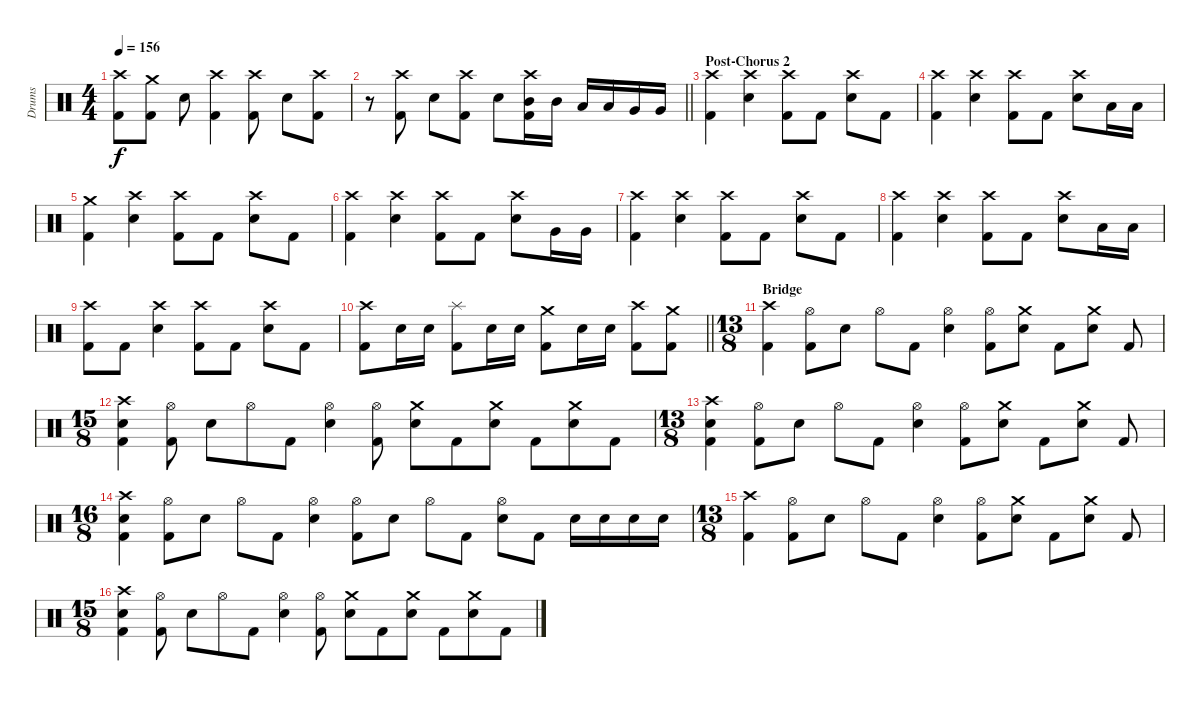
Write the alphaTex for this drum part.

\track ("Drums" "Drums") {instrument percussion}
\staff {score}
\articulation defaults
\ts (4 4)
\tempo 156
\clef neutral
\ks c
("Crash high (hit)" "Kick (hit) 2").8{dy f} ("Crash medium (hit)" "Kick (hit) 2").8 "Snare (hit) 2".8 ("Crash high (hit)" "Kick (hit) 2").4 ("Crash high (hit)" "Kick (hit) 2").8 "Snare (hit) 2".8 ("Crash high (hit)" "Kick (hit) 2").8 |
\barLineRight lightlight
r.8 ("Crash high (hit)" "Kick (hit) 2").8 "Snare (hit) 2".8 ("Crash high (hit)" "Kick (hit) 2").8 "Snare (hit) 2".8 ("Crash high (hit)" "Mid Tom (hit)" "Kick (hit) 2").16 "Mid Tom (hit)".16 "Low Tom (hit)".16 "Low Tom (hit)".16 "Very Low Tom (hit)".16 "Very Low Tom (hit)".16 |
\section ("" "Post-Chorus 2")
("Crash high (hit)" "Kick (hit) 2").4 ("Crash high (hit)" "Snare (hit) 2").4 ("Crash high (hit)" "Kick (hit) 2").8 "Kick (hit) 2".8 ("Crash high (hit)" "Snare (hit) 2").8 "Kick (hit) 2".8 |
("Crash high (hit)" "Kick (hit) 2").4 ("Crash high (hit)" "Snare (hit) 2").4 ("Crash high (hit)" "Kick (hit) 2").8 "Kick (hit) 2".8 ("Crash high (hit)" "Snare (hit) 2").8 "Low Tom (hit)".16 "Low Tom (hit)".16 |
("Crash medium (hit)" "Kick (hit) 2").4 ("Crash high (hit)" "Snare (hit) 2").4 ("Crash high (hit)" "Kick (hit) 2").8 "Kick (hit) 2".8 ("Crash high (hit)" "Snare (hit) 2").8 "Kick (hit) 2".8 |
("Crash high (hit)" "Kick (hit) 2").4 ("Crash high (hit)" "Snare (hit) 2").4 ("Crash high (hit)" "Kick (hit) 2").8 "Kick (hit) 2".8 ("Crash high (hit)" "Snare (hit) 2").8 "Very Low Tom (hit)".16 "Very Low Tom (hit)".16 |
("Crash high (hit)" "Kick (hit) 2").4 ("Crash high (hit)" "Snare (hit) 2").4 ("Crash high (hit)" "Kick (hit) 2").8 "Kick (hit) 2".8 ("Crash high (hit)" "Snare (hit) 2").8 "Kick (hit) 2".8 |
("Crash high (hit)" "Kick (hit) 2").4 ("Crash high (hit)" "Snare (hit) 2").4 ("Crash high (hit)" "Kick (hit) 2").8 "Kick (hit) 2".8 ("Crash high (hit)" "Snare (hit) 2").8 "Low Tom (hit)".16 "Low Tom (hit)".16 |
("Crash high (hit)" "Kick (hit) 2").8 "Kick (hit) 2".8 ("Crash high (hit)" "Snare (hit) 2").4 ("Crash high (hit)" "Kick (hit) 2").8 "Kick (hit) 2".8 ("Crash high (hit)" "Snare (hit) 2").8 "Kick (hit) 2".8 |
\barLineRight lightlight
("Crash high (hit)" "Kick (hit) 2").8 "Snare (hit) 2".16 "Snare (hit) 2".16 ("Splash (hit)" "Kick (hit) 2").8 "Snare (hit) 2".16 "Snare (hit) 2".16 ("Crash medium (hit)" "Kick (hit) 2").8 "Snare (hit) 2".16 "Snare (hit) 2".16 ("Crash high (hit)" "Kick (hit) 2").8 ("Crash medium (hit)" "Kick (hit) 2").8 |
\ts (13 8)
\section ("" "Bridge")
("Crash high (hit)" "Kick (hit) 2").4 ("Hi-Hat (open)" "Kick (hit) 2").8 "Snare (hit) 2".8 "Hi-Hat (open)".8 "Kick (hit) 2".8 ("Hi-Hat (open)" "Snare (hit) 2").4 ("Hi-Hat (open)" "Kick (hit) 2").8 ("Crash medium (hit)" "Snare (hit) 2").8 "Kick (hit) 2".8 ("Crash medium (hit)" "Snare (hit) 2").8 "Kick (hit) 2".8 |
\ts (15 8)
("Crash high (hit)" "Snare (hit) 2" "Kick (hit) 2").4 ("Hi-Hat (open)" "Kick (hit) 2").8 "Snare (hit) 2".8 "Hi-Hat (open)".8 "Kick (hit) 2".8 ("Hi-Hat (open)" "Snare (hit) 2").4 ("Hi-Hat (open)" "Kick (hit) 2").8 ("Crash medium (hit)" "Snare (hit) 2").8 "Kick (hit) 2".8 ("Crash medium (hit)" "Snare (hit) 2").8 "Kick (hit) 2".8 ("Crash medium (hit)" "Snare (hit) 2").8 "Kick (hit) 2".8 |
\ts (13 8)
("Crash high (hit)" "Snare (hit) 2" "Kick (hit) 2").4 ("Hi-Hat (open)" "Kick (hit) 2").8 "Snare (hit) 2".8 "Hi-Hat (open)".8 "Kick (hit) 2".8 ("Hi-Hat (open)" "Snare (hit) 2").4 ("Hi-Hat (open)" "Kick (hit) 2").8 ("Crash medium (hit)" "Snare (hit) 2").8 "Kick (hit) 2".8 ("Crash medium (hit)" "Snare (hit) 2").8 "Kick (hit) 2".8 |
\ts (16 8)
("Crash high (hit)" "Snare (hit) 2" "Kick (hit) 2").4 ("Hi-Hat (open)" "Kick (hit) 2").8 "Snare (hit) 2".8 "Hi-Hat (open)".8 "Kick (hit) 2".8 ("Hi-Hat (open)" "Snare (hit) 2").4 ("Hi-Hat (open)" "Kick (hit) 2").8 "Snare (hit) 2".8 "Hi-Hat (open)".8 "Kick (hit) 2".8 ("Hi-Hat (open)" "Snare (hit) 2").8 "Kick (hit) 2".8 "Snare (hit) 2".16 "Snare (hit) 2".16 "Snare (hit) 2".16 "Snare (hit) 2".16 |
\ts (13 8)
("Crash high (hit)" "Kick (hit) 2").4 ("Hi-Hat (open)" "Kick (hit) 2").8 "Snare (hit) 2".8 "Hi-Hat (open)".8 "Kick (hit) 2".8 ("Hi-Hat (open)" "Snare (hit) 2").4 ("Hi-Hat (open)" "Kick (hit) 2").8 ("Crash medium (hit)" "Snare (hit) 2").8 "Kick (hit) 2".8 ("Crash medium (hit)" "Snare (hit) 2").8 "Kick (hit) 2".8 |
\ts (15 8)
("Crash high (hit)" "Snare (hit) 2" "Kick (hit) 2").4 ("Hi-Hat (open)" "Kick (hit) 2").8 "Snare (hit) 2".8 "Hi-Hat (open)".8 "Kick (hit) 2".8 ("Hi-Hat (open)" "Snare (hit) 2").4 ("Hi-Hat (open)" "Kick (hit) 2").8 ("Crash medium (hit)" "Snare (hit) 2").8 "Kick (hit) 2".8 ("Crash medium (hit)" "Snare (hit) 2").8 "Kick (hit) 2".8 ("Crash medium (hit)" "Snare (hit) 2").8 "Kick (hit) 2".8
